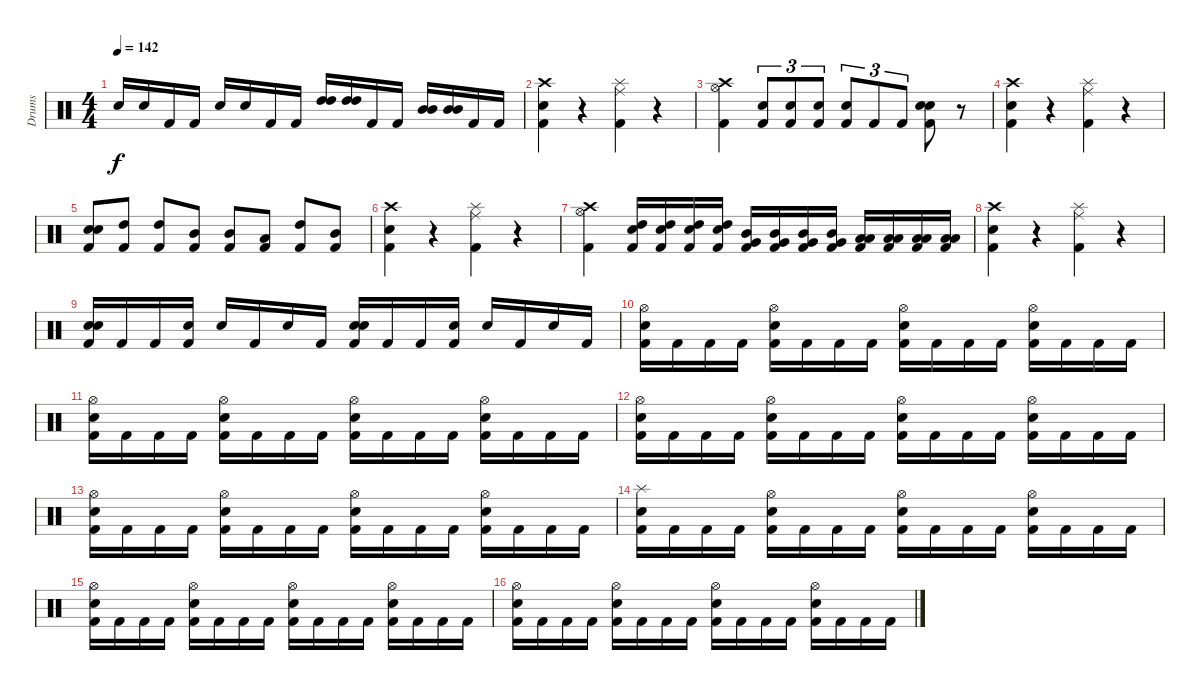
\track ("Drums" "Drums") {instrument percussion}
\staff {score}
\articulation defaults
\ts (4 4)
\tempo 142
\clef neutral
\ks c "Snare (hit) 2".16{dy f} "Snare (hit) 2".16 "Kick (hit) 2".16 "Kick (hit) 2".16 "Electric Snare (hit)".16 "Electric Snare (hit)".16 "Kick (hit) 2".16 "Kick (hit) 2".16
("High Tom (hit)" "High Tom (hit)").16 ("High Tom (hit)" "High Tom (hit)").16 "Kick (hit) 2".16 "Kick (hit) 2".16 ("Mid Tom (hit)" "Mid Tom (hit)").16 ("Mid Tom (hit)" "Mid Tom (hit)").16 "Kick (hit) 2".16 "Kick (hit) 2".16 |
("Crash high (hit)" "Electric Snare (hit)" "Kick (hit) 2").4 r.4 ("Splash (hit)" "Ride (middle)" "Kick (hit) 2").4 r.4 |
("Crash high (hit)" "Hi-Hat (open)" "Kick (hit) 2").4 ("Electric Snare (hit)" "Kick (hit) 2").8{tu (3 2)} ("Electric Snare (hit)" "Kick (hit) 2").8{tu (3 2)} ("Electric Snare (hit)" "Kick (hit) 2").8{tu (3 2)} ("Electric Snare (hit)" "Kick (hit) 2").8{tu (3 2)} "Kick (hit) 2".8{tu (3 2)} "Kick (hit) 2".8{tu (3 2)} ("Snare (hit) 2" "Electric Snare (hit)" "Kick (hit) 2").8 r.8 |
("Crash high (hit)" "Electric Snare (hit)" "Kick (hit) 2").4 r.4 ("Splash (hit)" "Ride (middle)" "Kick (hit) 2").4 r.4 |
("Snare (hit) 2" "Electric Snare (hit)" "Kick (hit) 2").8 ("High Tom (hit)" "Kick (hit) 2").8 ("High Tom (hit)" "Kick (hit) 2").8 ("Mid Tom (hit)" "Kick (hit) 2").8 ("Mid Tom (hit)" "Kick (hit) 2").8 ("Low Tom (hit)" "Kick (hit) 2").8 ("High Tom (hit)" "Kick (hit) 2").8 ("Mid Tom (hit)" "Kick (hit) 2").8 |
("Crash high (hit)" "Electric Snare (hit)" "Kick (hit) 2").4 r.4 ("Splash (hit)" "Ride (middle)" "Kick (hit) 2").4 r.4 |
("Crash high (hit)" "Hi-Hat (open)" "Kick (hit) 2").4 ("Electric Snare (hit)" "High Tom (hit)" "Kick (hit) 2").16 ("Electric Snare (hit)" "High Tom (hit)" "Kick (hit) 2").16 ("Electric Snare (hit)" "High Tom (hit)" "Kick (hit) 2").16 ("Electric Snare (hit)" "High Tom (hit)" "Kick (hit) 2").16 ("Very Low Tom (hit)" "Mid Tom (hit)" "Kick (hit) 2").16 ("Very Low Tom (hit)" "Mid Tom (hit)" "Kick (hit) 2").16 ("Very Low Tom (hit)" "Mid Tom (hit)" "Kick (hit) 2").16 ("Very Low Tom (hit)" "Mid Tom (hit)" "Kick (hit) 2").16 ("Low Tom (hit)" "Low Tom (hit)" "Kick (hit) 2").16 ("Low Tom (hit)" "Low Tom (hit)" "Kick (hit) 2").16 ("Low Tom (hit)" "Low Tom (hit)" "Kick (hit) 2").16 ("Low Tom (hit)" "Low Tom (hit)" "Kick (hit) 2").16 |
("Crash high (hit)" "Electric Snare (hit)" "Kick (hit) 2").4 r.4 ("Splash (hit)" "Ride (middle)" "Kick (hit) 2").4 r.4 |
("Snare (hit) 2" "Electric Snare (hit)" "Kick (hit) 2").16 "Kick (hit) 2".16 "Kick (hit) 2".16 ("Snare (hit) 2" "Kick (hit) 2").16 "Snare (hit) 2".16 "Kick (hit) 2".16 "Electric Snare (hit)".16 "Kick (hit) 2".16 ("Snare (hit) 2" "Electric Snare (hit)" "Kick (hit) 2").16 "Kick (hit) 2".16 "Kick (hit) 2".16 ("Snare (hit) 2" "Kick (hit) 2").16 "Snare (hit) 2".16 "Kick (hit) 2".16 "Electric Snare (hit)".16 "Kick (hit) 2".16 |
("Electric Snare (hit)" "Hi-Hat (open)" "Kick (hit) 2").16 "Kick (hit) 2".16 "Kick (hit) 2".16 "Kick (hit) 2".16 ("Electric Snare (hit)" "Hi-Hat (open)" "Kick (hit) 2").16 "Kick (hit) 2".16 "Kick (hit) 2".16 "Kick (hit) 2".16 ("Electric Snare (hit)" "Hi-Hat (open)" "Kick (hit) 2").16 "Kick (hit) 2".16 "Kick (hit) 2".16 "Kick (hit) 2".16 ("Electric Snare (hit)" "Hi-Hat (open)" "Kick (hit) 2").16 "Kick (hit) 2".16 "Kick (hit) 2".16 "Kick (hit) 2".16 |
("Electric Snare (hit)" "Hi-Hat (open)" "Kick (hit) 2").16 "Kick (hit) 2".16 "Kick (hit) 2".16 "Kick (hit) 2".16 ("Electric Snare (hit)" "Hi-Hat (open)" "Kick (hit) 2").16 "Kick (hit) 2".16 "Kick (hit) 2".16 "Kick (hit) 2".16 ("Electric Snare (hit)" "Hi-Hat (open)" "Kick (hit) 2").16 "Kick (hit) 2".16 "Kick (hit) 2".16 "Kick (hit) 2".16 ("Electric Snare (hit)" "Hi-Hat (open)" "Kick (hit) 2").16 "Kick (hit) 2".16 "Kick (hit) 2".16 "Kick (hit) 2".16 |
("Electric Snare (hit)" "Hi-Hat (open)" "Kick (hit) 2").16 "Kick (hit) 2".16 "Kick (hit) 2".16 "Kick (hit) 2".16 ("Electric Snare (hit)" "Hi-Hat (open)" "Kick (hit) 2").16 "Kick (hit) 2".16 "Kick (hit) 2".16 "Kick (hit) 2".16 ("Electric Snare (hit)" "Hi-Hat (open)" "Kick (hit) 2").16 "Kick (hit) 2".16 "Kick (hit) 2".16 "Kick (hit) 2".16 ("Electric Snare (hit)" "Hi-Hat (open)" "Kick (hit) 2").16 "Kick (hit) 2".16 "Kick (hit) 2".16 "Kick (hit) 2".16 |
("Electric Snare (hit)" "Hi-Hat (open)" "Kick (hit) 2").16 "Kick (hit) 2".16 "Kick (hit) 2".16 "Kick (hit) 2".16 ("Electric Snare (hit)" "Hi-Hat (open)" "Kick (hit) 2").16 "Kick (hit) 2".16 "Kick (hit) 2".16 "Kick (hit) 2".16 ("Electric Snare (hit)" "Hi-Hat (open)" "Kick (hit) 2").16 "Kick (hit) 2".16 "Kick (hit) 2".16 "Kick (hit) 2".16 ("Electric Snare (hit)" "Hi-Hat (open)" "Kick (hit) 2").16 "Kick (hit) 2".16 "Kick (hit) 2".16 "Kick (hit) 2".16 |
("Splash (hit)" "Electric Snare (hit)" "Kick (hit) 2").16 "Kick (hit) 2".16 "Kick (hit) 2".16 "Kick (hit) 2".16 ("Electric Snare (hit)" "Hi-Hat (open)" "Kick (hit) 2").16 "Kick (hit) 2".16 "Kick (hit) 2".16 "Kick (hit) 2".16 ("Electric Snare (hit)" "Hi-Hat (open)" "Kick (hit) 2").16 "Kick (hit) 2".16 "Kick (hit) 2".16 "Kick (hit) 2".16 ("Electric Snare (hit)" "Hi-Hat (open)" "Kick (hit) 2").16 "Kick (hit) 2".16 "Kick (hit) 2".16 "Kick (hit) 2".16 |
("Electric Snare (hit)" "Hi-Hat (open)" "Kick (hit) 2").16 "Kick (hit) 2".16 "Kick (hit) 2".16 "Kick (hit) 2".16 ("Electric Snare (hit)" "Hi-Hat (open)" "Kick (hit) 2").16 "Kick (hit) 2".16 "Kick (hit) 2".16 "Kick (hit) 2".16 ("Electric Snare (hit)" "Hi-Hat (open)" "Kick (hit) 2").16 "Kick (hit) 2".16 "Kick (hit) 2".16 "Kick (hit) 2".16 ("Electric Snare (hit)" "Hi-Hat (open)" "Kick (hit) 2").16 "Kick (hit) 2".16 "Kick (hit) 2".16 "Kick (hit) 2".16 |
("Electric Snare (hit)" "Hi-Hat (open)" "Kick (hit) 2").16 "Kick (hit) 2".16 "Kick (hit) 2".16 "Kick (hit) 2".16 ("Electric Snare (hit)" "Hi-Hat (open)" "Kick (hit) 2").16 "Kick (hit) 2".16 "Kick (hit) 2".16 "Kick (hit) 2".16 ("Electric Snare (hit)" "Hi-Hat (open)" "Kick (hit) 2").16 "Kick (hit) 2".16 "Kick (hit) 2".16 "Kick (hit) 2".16 ("Electric Snare (hit)" "Hi-Hat (open)" "Kick (hit) 2").16 "Kick (hit) 2".16 "Kick (hit) 2".16 "Kick (hit) 2".16
